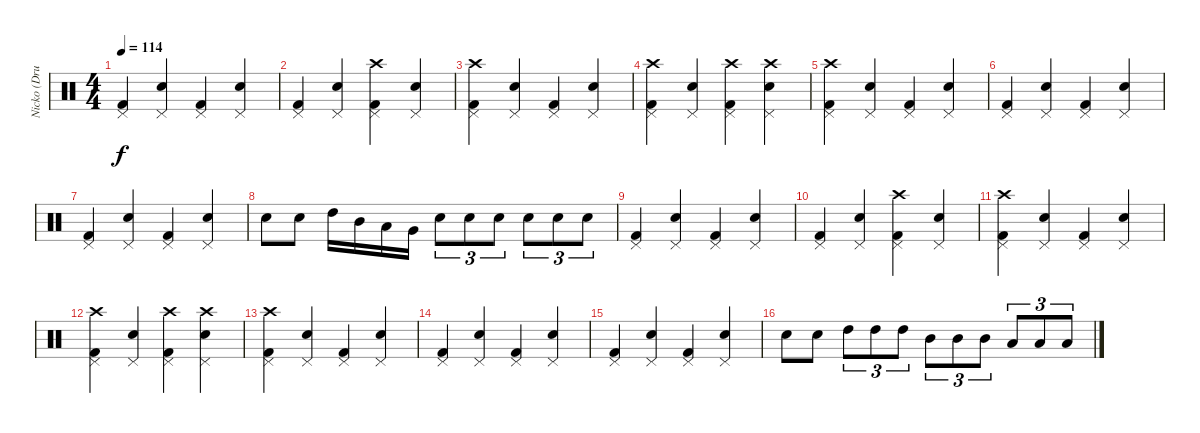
\track ("Nicko (Drums)" "Nicko (Dru") {instrument percussion}
\staff {score}
\articulation defaults
\ts (4 4)
\tempo 114
\clef neutral
\ks c
("Pedal Hi-Hat (hit)" "Kick (hit) 2").4{dy f} ("Pedal Hi-Hat (hit)" "Snare (hit) 2").4 ("Pedal Hi-Hat (hit)" "Kick (hit) 2").4 ("Pedal Hi-Hat (hit)" "Snare (hit) 2").4 |
("Pedal Hi-Hat (hit)" "Kick (hit) 2").4 ("Pedal Hi-Hat (hit)" "Snare (hit) 2").4 ("Pedal Hi-Hat (hit)" "Kick (hit) 2" "Crash high (hit)").4 ("Pedal Hi-Hat (hit)" "Snare (hit) 2").4 |
("Pedal Hi-Hat (hit)" "Kick (hit) 2" "Crash high (hit)").4 ("Pedal Hi-Hat (hit)" "Snare (hit) 2").4 ("Pedal Hi-Hat (hit)" "Kick (hit) 2").4 ("Pedal Hi-Hat (hit)" "Snare (hit) 2").4 |
("Pedal Hi-Hat (hit)" "Kick (hit) 2" "Crash high (hit)").4 ("Pedal Hi-Hat (hit)" "Snare (hit) 2").4 ("Pedal Hi-Hat (hit)" "Kick (hit) 2" "Crash high (hit)").4 ("Pedal Hi-Hat (hit)" "Snare (hit) 2" "Crash high (hit)").4 |
("Pedal Hi-Hat (hit)" "Kick (hit) 2" "Crash high (hit)").4 ("Pedal Hi-Hat (hit)" "Snare (hit) 2").4 ("Pedal Hi-Hat (hit)" "Kick (hit) 2").4 ("Pedal Hi-Hat (hit)" "Snare (hit) 2").4 |
("Pedal Hi-Hat (hit)" "Kick (hit) 2").4 ("Pedal Hi-Hat (hit)" "Snare (hit) 2").4 ("Pedal Hi-Hat (hit)" "Kick (hit) 2").4 ("Pedal Hi-Hat (hit)" "Snare (hit) 2").4 |
("Pedal Hi-Hat (hit)" "Kick (hit) 2").4 ("Pedal Hi-Hat (hit)" "Snare (hit) 2").4 ("Pedal Hi-Hat (hit)" "Kick (hit) 2").4 ("Pedal Hi-Hat (hit)" "Snare (hit) 2").4 |
"Snare (hit) 2".8 "Snare (hit) 2".8 "High Tom (hit)".16 "Mid Tom (hit)".16 "Low Tom (hit)".16 "Very Low Tom (hit)".16 "Snare (hit) 2".8{tu (3 2)} "Snare (hit) 2".8{tu (3 2)} "Snare (hit) 2".8{tu (3 2)} "Snare (hit) 2".8{tu (3 2)} "Snare (hit) 2".8{tu (3 2)} "Snare (hit) 2".8{tu (3 2)} |
("Pedal Hi-Hat (hit)" "Kick (hit) 2").4 ("Pedal Hi-Hat (hit)" "Snare (hit) 2").4 ("Pedal Hi-Hat (hit)" "Kick (hit) 2").4 ("Pedal Hi-Hat (hit)" "Snare (hit) 2").4 |
("Pedal Hi-Hat (hit)" "Kick (hit) 2").4 ("Pedal Hi-Hat (hit)" "Snare (hit) 2").4 ("Pedal Hi-Hat (hit)" "Kick (hit) 2" "Crash high (hit)").4 ("Pedal Hi-Hat (hit)" "Snare (hit) 2").4 |
("Pedal Hi-Hat (hit)" "Kick (hit) 2" "Crash high (hit)").4 ("Pedal Hi-Hat (hit)" "Snare (hit) 2").4 ("Pedal Hi-Hat (hit)" "Kick (hit) 2").4 ("Pedal Hi-Hat (hit)" "Snare (hit) 2").4 |
("Pedal Hi-Hat (hit)" "Kick (hit) 2" "Crash high (hit)").4 ("Pedal Hi-Hat (hit)" "Snare (hit) 2").4 ("Pedal Hi-Hat (hit)" "Kick (hit) 2" "Crash high (hit)").4 ("Pedal Hi-Hat (hit)" "Snare (hit) 2" "Crash high (hit)").4 |
("Pedal Hi-Hat (hit)" "Kick (hit) 2" "Crash high (hit)").4 ("Pedal Hi-Hat (hit)" "Snare (hit) 2").4 ("Pedal Hi-Hat (hit)" "Kick (hit) 2").4 ("Pedal Hi-Hat (hit)" "Snare (hit) 2").4 |
("Pedal Hi-Hat (hit)" "Kick (hit) 2").4 ("Pedal Hi-Hat (hit)" "Snare (hit) 2").4 ("Pedal Hi-Hat (hit)" "Kick (hit) 2").4 ("Pedal Hi-Hat (hit)" "Snare (hit) 2").4 |
("Pedal Hi-Hat (hit)" "Kick (hit) 2").4 ("Pedal Hi-Hat (hit)" "Snare (hit) 2").4 ("Pedal Hi-Hat (hit)" "Kick (hit) 2").4 ("Pedal Hi-Hat (hit)" "Snare (hit) 2").4 |
"Snare (hit) 2".8 "Snare (hit) 2".8 "High Tom (hit)".8{tu (3 2)} "High Tom (hit)".8{tu (3 2)} "High Tom (hit)".8{tu (3 2)} "Mid Tom (hit)".8{tu (3 2)} "Mid Tom (hit)".8{tu (3 2)} "Mid Tom (hit)".8{tu (3 2)} "Low Tom (hit)".8{tu (3 2)} "Low Tom (hit)".8{tu (3 2)} "Low Tom (hit)".8{tu (3 2)}
